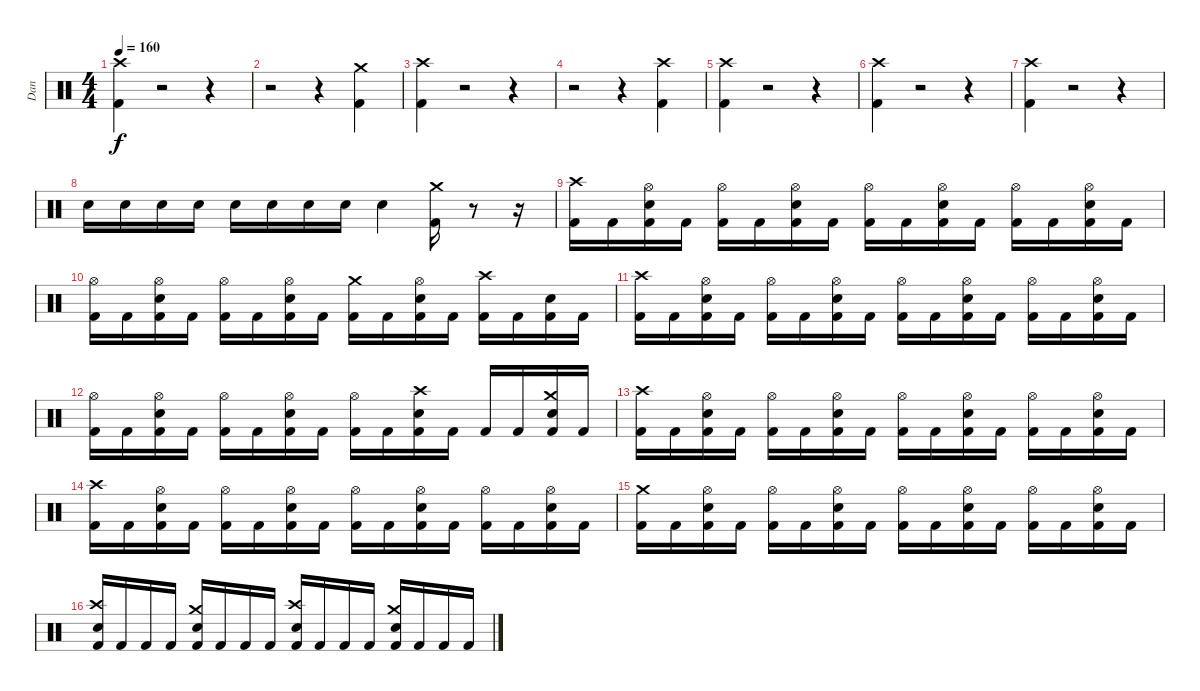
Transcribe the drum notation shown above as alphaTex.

\track ("Dan " "Dan ") {instrument percussion}
\staff {score}
\articulation defaults
\ts (4 4)
\tempo 160
\clef neutral
\ks c
("Kick (hit) 2" "Crash high (hit)").4{dy f} r.2 r.4 |
r.2 r.4 ("Kick (hit) 2" "Crash medium (hit)").4 |
("Kick (hit) 2" "Crash high (hit)").4 r.2 r.4 |
r.2 r.4 ("Kick (hit) 2" "Crash high (hit)").4 |
("Kick (hit) 2" "Crash high (hit)").4 r.2 r.4 |
("Kick (hit) 2" "Crash high (hit)").4 r.2 r.4 |
("Kick (hit) 2" "Crash high (hit)").4 r.2 r.4 |
"Metronome (bell)".16 "Metronome (bell)".16 "Metronome (bell)".16 "Metronome (bell)".16 "Metronome (bell)".16 "Metronome (bell)".16 "Metronome (bell)".16 "Metronome (bell)".16 "Metronome (bell)".4 ("Kick (hit) 2" "Crash medium (hit)").16 r.8 r.16 |
("Kick (hit) 2" "Crash high (hit)").16 "Kick (hit) 2".16 ("Metronome (bell)" "Kick (hit) 2" "Hi-Hat (open)").16 "Kick (hit) 2".16 ("Kick (hit) 2" "Hi-Hat (open)").16 "Kick (hit) 2".16 ("Metronome (bell)" "Kick (hit) 2" "Hi-Hat (open)").16 "Kick (hit) 2".16 ("Kick (hit) 2" "Hi-Hat (open)").16 "Kick (hit) 2".16 ("Metronome (bell)" "Kick (hit) 2" "Hi-Hat (open)").16 "Kick (hit) 2".16 ("Kick (hit) 2" "Hi-Hat (open)").16 "Kick (hit) 2".16 ("Metronome (bell)" "Kick (hit) 2" "Hi-Hat (open)").16 "Kick (hit) 2".16 |
("Kick (hit) 2" "Hi-Hat (open)").16 "Kick (hit) 2".16 ("Metronome (bell)" "Kick (hit) 2" "Hi-Hat (open)").16 "Kick (hit) 2".16 ("Kick (hit) 2" "Hi-Hat (open)").16 "Kick (hit) 2".16 ("Metronome (bell)" "Kick (hit) 2" "Hi-Hat (open)").16 "Kick (hit) 2".16 ("Kick (hit) 2" "Crash medium (hit)").16 "Kick (hit) 2".16 ("Metronome (bell)" "Kick (hit) 2" "Hi-Hat (open)").16 "Kick (hit) 2".16 ("Kick (hit) 2" "Crash high (hit)").16 "Kick (hit) 2".16 ("Metronome (bell)" "Kick (hit) 2").16 "Kick (hit) 2".16 |
("Kick (hit) 2" "Crash high (hit)").16 "Kick (hit) 2".16 ("Metronome (bell)" "Kick (hit) 2" "Hi-Hat (open)").16 "Kick (hit) 2".16 ("Kick (hit) 2" "Hi-Hat (open)").16 "Kick (hit) 2".16 ("Metronome (bell)" "Kick (hit) 2" "Hi-Hat (open)").16 "Kick (hit) 2".16 ("Kick (hit) 2" "Hi-Hat (open)").16 "Kick (hit) 2".16 ("Metronome (bell)" "Kick (hit) 2" "Hi-Hat (open)").16 "Kick (hit) 2".16 ("Kick (hit) 2" "Hi-Hat (open)").16 "Kick (hit) 2".16 ("Metronome (bell)" "Kick (hit) 2" "Hi-Hat (open)").16 "Kick (hit) 2".16 |
("Kick (hit) 2" "Hi-Hat (open)").16 "Kick (hit) 2".16 ("Metronome (bell)" "Kick (hit) 2" "Hi-Hat (open)").16 "Kick (hit) 2".16 ("Kick (hit) 2" "Hi-Hat (open)").16 "Kick (hit) 2".16 ("Metronome (bell)" "Kick (hit) 2" "Hi-Hat (open)").16 "Kick (hit) 2".16 ("Kick (hit) 2" "Hi-Hat (open)").16 "Kick (hit) 2".16 ("Metronome (bell)" "Kick (hit) 2" "Crash high (hit)").16 "Kick (hit) 2".16 "Kick (hit) 2".16 "Kick (hit) 2".16 ("Metronome (bell)" "Kick (hit) 2" "Crash medium (hit)").16 "Kick (hit) 2".16 |
("Kick (hit) 2" "Crash high (hit)").16 "Kick (hit) 2".16 ("Metronome (bell)" "Kick (hit) 2" "Hi-Hat (open)").16 "Kick (hit) 2".16 ("Kick (hit) 2" "Hi-Hat (open)").16 "Kick (hit) 2".16 ("Metronome (bell)" "Kick (hit) 2" "Hi-Hat (open)").16 "Kick (hit) 2".16 ("Kick (hit) 2" "Hi-Hat (open)").16 "Kick (hit) 2".16 ("Metronome (bell)" "Kick (hit) 2" "Hi-Hat (open)").16 "Kick (hit) 2".16 ("Kick (hit) 2" "Hi-Hat (open)").16 "Kick (hit) 2".16 ("Metronome (bell)" "Kick (hit) 2" "Hi-Hat (open)").16 "Kick (hit) 2".16 |
("Kick (hit) 2" "Crash high (hit)").16 "Kick (hit) 2".16 ("Metronome (bell)" "Kick (hit) 2" "Hi-Hat (open)").16 "Kick (hit) 2".16 ("Kick (hit) 2" "Hi-Hat (open)").16 "Kick (hit) 2".16 ("Metronome (bell)" "Kick (hit) 2" "Hi-Hat (open)").16 "Kick (hit) 2".16 ("Kick (hit) 2" "Hi-Hat (open)").16 "Kick (hit) 2".16 ("Metronome (bell)" "Kick (hit) 2" "Hi-Hat (open)").16 "Kick (hit) 2".16 ("Kick (hit) 2" "Hi-Hat (open)").16 "Kick (hit) 2".16 ("Metronome (bell)" "Kick (hit) 2" "Hi-Hat (open)").16 "Kick (hit) 2".16 |
("Kick (hit) 2" "Crash medium (hit)").16 "Kick (hit) 2".16 ("Metronome (bell)" "Kick (hit) 2" "Hi-Hat (open)").16 "Kick (hit) 2".16 ("Kick (hit) 2" "Hi-Hat (open)").16 "Kick (hit) 2".16 ("Metronome (bell)" "Kick (hit) 2" "Hi-Hat (open)").16 "Kick (hit) 2".16 ("Kick (hit) 2" "Hi-Hat (open)").16 "Kick (hit) 2".16 ("Metronome (bell)" "Kick (hit) 2" "Hi-Hat (open)").16 "Kick (hit) 2".16 ("Kick (hit) 2" "Hi-Hat (open)").16 "Kick (hit) 2".16 ("Metronome (bell)" "Kick (hit) 2" "Hi-Hat (open)").16 "Kick (hit) 2".16 |
("Metronome (bell)" "Kick (hit) 2" "Crash high (hit)").16 "Kick (hit) 2".16 "Kick (hit) 2".16 "Kick (hit) 2".16 ("Metronome (bell)" "Kick (hit) 2" "Crash medium (hit)").16 "Kick (hit) 2".16 "Kick (hit) 2".16 "Kick (hit) 2".16 ("Metronome (bell)" "Kick (hit) 2" "Crash high (hit)").16 "Kick (hit) 2".16 "Kick (hit) 2".16 "Kick (hit) 2".16 ("Metronome (bell)" "Kick (hit) 2" "Crash medium (hit)").16 "Kick (hit) 2".16 "Kick (hit) 2".16 "Kick (hit) 2".16
